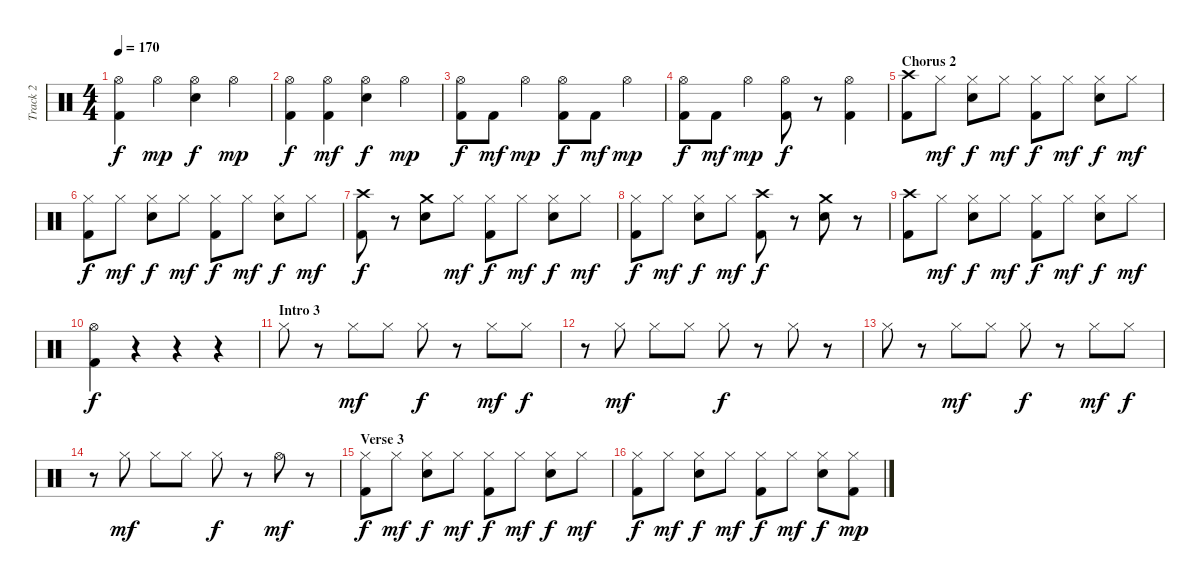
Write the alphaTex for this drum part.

\track ("Track 2" "Track 2") {instrument percussion}
\staff {score}
\articulation defaults
\ts (4 4)
\tempo 170
\clef neutral
\ks c
("Hi-Hat (open)" "Kick (hit) 2").4{dy f} "Hi-Hat (open)".4{dy mp} ("Hi-Hat (open)" "Electric Snare (hit)").4{dy f} "Hi-Hat (open)".4{dy mp} |
("Hi-Hat (open)" "Kick (hit) 2").4{dy f} ("Hi-Hat (open)" "Kick (hit) 2").4{dy mf} ("Hi-Hat (open)" "Electric Snare (hit)").4{dy f} "Hi-Hat (open)".4{dy mp} |
("Hi-Hat (open)" "Kick (hit) 2").8{dy f} "Kick (hit) 2".8{dy mf} "Hi-Hat (open)".4{dy mp} ("Hi-Hat (open)" "Kick (hit) 2").8{dy f} "Kick (hit) 2".8{dy mf} "Hi-Hat (open)".4{dy mp} |
("Hi-Hat (open)" "Kick (hit) 2").8{dy f} "Kick (hit) 2".8{dy mf} "Hi-Hat (open)".4{dy mp} ("Hi-Hat (open)" "Kick (hit) 2").8{dy f} r.8 ("Hi-Hat (open)" "Kick (hit) 2").4 |
\section ("" "Chorus 2")
("Crash high (hit)" "Kick (hit) 2").8 "Hi-Hat (closed)".8{dy mf} ("Hi-Hat (closed)" "Electric Snare (hit)").8{dy f} "Hi-Hat (closed)".8{dy mf} ("Hi-Hat (closed)" "Kick (hit) 2").8{dy f} "Hi-Hat (closed)".8{dy mf} ("Hi-Hat (closed)" "Electric Snare (hit)").8{dy f} "Hi-Hat (closed)".8{dy mf} |
("Hi-Hat (closed)" "Kick (hit) 2").8{dy f} "Hi-Hat (closed)".8{dy mf} ("Hi-Hat (closed)" "Electric Snare (hit)").8{dy f} "Hi-Hat (closed)".8{dy mf} ("Hi-Hat (closed)" "Kick (hit) 2").8{dy f} "Hi-Hat (closed)".8{dy mf} ("Hi-Hat (closed)" "Electric Snare (hit)").8{dy f} "Hi-Hat (closed)".8{dy mf} |
("Crash high (hit)" "Kick (hit) 2").8{dy f} r.8 ("Crash medium (hit)" "Electric Snare (hit)").8 "Hi-Hat (closed)".8{dy mf} ("Hi-Hat (closed)" "Kick (hit) 2").8{dy f} "Hi-Hat (closed)".8{dy mf} ("Hi-Hat (closed)" "Electric Snare (hit)").8{dy f} "Hi-Hat (closed)".8{dy mf} |
("Hi-Hat (closed)" "Kick (hit) 2").8{dy f} "Hi-Hat (closed)".8{dy mf} ("Hi-Hat (closed)" "Electric Snare (hit)").8{dy f} "Hi-Hat (closed)".8{dy mf} ("Crash high (hit)" "Kick (hit) 2").8{dy f} r.8 ("Crash medium (hit)" "Electric Snare (hit)").8 r.8 |
("Crash high (hit)" "Kick (hit) 2").8 "Hi-Hat (closed)".8{dy mf} ("Hi-Hat (closed)" "Electric Snare (hit)").8{dy f} "Hi-Hat (closed)".8{dy mf} ("Hi-Hat (closed)" "Kick (hit) 2").8{dy f} "Hi-Hat (closed)".8{dy mf} ("Hi-Hat (closed)" "Electric Snare (hit)").8{dy f} "Hi-Hat (closed)".8{dy mf} |
("Hi-Hat (open)" "Kick (hit) 2").4{dy f} r.4 r.4 r.4 |
\section ("" "Intro 3")
"Hi-Hat (closed)".8 r.8 "Hi-Hat (closed)".8{dy mf} "Hi-Hat (closed)".8 "Hi-Hat (closed)".8{dy f} r.8 "Hi-Hat (closed)".8{dy mf} "Hi-Hat (closed)".8{dy f} |
r.8 "Hi-Hat (closed)".8{dy mf} "Hi-Hat (closed)".8 "Hi-Hat (closed)".8 "Hi-Hat (closed)".8{dy f} r.8 "Hi-Hat (closed)".8 r.8 |
"Hi-Hat (closed)".8 r.8 "Hi-Hat (closed)".8{dy mf} "Hi-Hat (closed)".8 "Hi-Hat (closed)".8{dy f} r.8 "Hi-Hat (closed)".8{dy mf} "Hi-Hat (closed)".8{dy f} |
r.8 "Hi-Hat (closed)".8{dy mf} "Hi-Hat (closed)".8 "Hi-Hat (closed)".8 "Hi-Hat (closed)".8{dy f} r.8 "Hi-Hat (open)".8{dy mf} r.8 |
\section ("" "Verse 3")
("Hi-Hat (closed)" "Kick (hit) 2").8{dy f} "Hi-Hat (closed)".8{dy mf} ("Hi-Hat (closed)" "Electric Snare (hit)").8{dy f} "Hi-Hat (closed)".8{dy mf} ("Hi-Hat (closed)" "Kick (hit) 2").8{dy f} "Hi-Hat (closed)".8{dy mf} ("Hi-Hat (closed)" "Electric Snare (hit)").8{dy f} "Hi-Hat (closed)".8{dy mf} |
("Hi-Hat (closed)" "Kick (hit) 2").8{dy f} "Hi-Hat (closed)".8{dy mf} ("Hi-Hat (closed)" "Electric Snare (hit)").8{dy f} "Hi-Hat (closed)".8{dy mf} ("Hi-Hat (closed)" "Kick (hit) 2").8{dy f} "Hi-Hat (closed)".8{dy mf} ("Hi-Hat (closed)" "Electric Snare (hit)").8{dy f} ("Hi-Hat (closed)" "Kick (hit) 2").8{dy mp}
